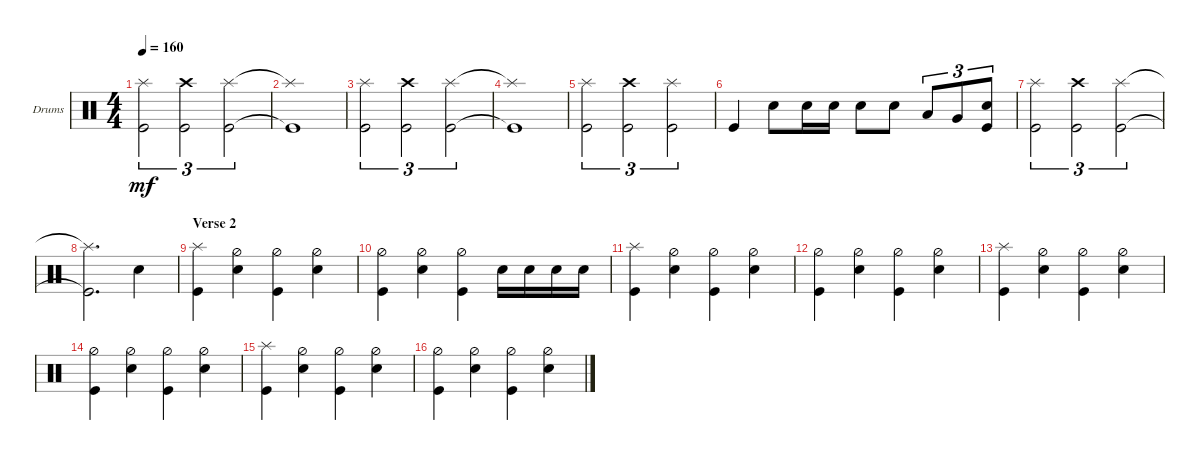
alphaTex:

\defaultSystemsLayout 4
\bracketExtendMode groupsimilarinstruments
\firstSystemTrackNameOrientation horizontal
\otherSystemsTrackNameOrientation horizontal
\track ("Drumkit" "Drums") {instrument percussion}
\staff {score}
\articulation defaults
\ts (4 4)
\tempo 160
\clef neutral
\ks c
("Kick (hit)" "Splash (hit)").2{tu (3 2) dy mf} ("Kick (hit)" "Crash high (hit)").2{tu (3 2)} ("Kick (hit)" "Splash (hit)").2{tu (3 2)} |
("Kick (hit)"{t} "Splash (hit)"{t}).1 |
("Kick (hit)" "Splash (hit)").2{tu (3 2)} ("Kick (hit)" "Crash high (hit)").2{tu (3 2)} ("Kick (hit)" "Splash (hit)").2{tu (3 2)} |
("Kick (hit)"{t} "Splash (hit)"{t}).1 |
("Kick (hit)" "Splash (hit)").2{tu (3 2)} ("Kick (hit)" "Crash high (hit)").2{tu (3 2)} ("Kick (hit)" "Splash (hit)").2{tu (3 2)} |
"Kick (hit)".4 "Snare (hit) 2".8 "Snare (hit) 2".16 "Snare (hit) 2".16 "Snare (hit) 2".8 "Snare (hit) 2".8 "Low Tom (hit)".8{tu (3 2)} "Very Low Tom (hit)".8{tu (3 2)} ("Kick (hit)" "Snare (hit) 2").8{tu (3 2)} |
("Kick (hit)" "Splash (hit)").2{tu (3 2)} ("Kick (hit)" "Crash high (hit)").2{tu (3 2)} ("Kick (hit)" "Splash (hit)").2{tu (3 2)} |
("Kick (hit)"{t} "Splash (hit)"{t}).2{d} "Snare (hit) 2".4 |
\section ("" "Verse 2")
("Splash (hit)" "Kick (hit)").4 ("Hi-Hat (half)" "Snare (hit) 2").4 ("Hi-Hat (half)" "Kick (hit)").4 ("Hi-Hat (half)" "Snare (hit) 2").4 |
("Hi-Hat (half)" "Kick (hit)").4 ("Hi-Hat (half)" "Snare (hit) 2").4 ("Hi-Hat (half)" "Kick (hit)").4 "Snare (hit) 2".16 "Snare (hit) 2".16 "Snare (hit) 2".16 "Snare (hit) 2".16 |
("Kick (hit)" "Splash (hit)").4 ("Hi-Hat (half)" "Snare (hit) 2").4 ("Hi-Hat (half)" "Kick (hit)").4 ("Hi-Hat (half)" "Snare (hit) 2").4 |
("Hi-Hat (half)" "Kick (hit)").4 ("Hi-Hat (half)" "Snare (hit) 2").4 ("Hi-Hat (half)" "Kick (hit)").4 ("Hi-Hat (half)" "Snare (hit) 2").4 |
("Splash (hit)" "Kick (hit)").4 ("Hi-Hat (half)" "Snare (hit) 2").4 ("Hi-Hat (half)" "Kick (hit)").4 ("Hi-Hat (half)" "Snare (hit) 2").4 |
("Hi-Hat (half)" "Kick (hit)").4 ("Hi-Hat (half)" "Snare (hit) 2").4 ("Hi-Hat (half)" "Kick (hit)").4 ("Hi-Hat (half)" "Snare (hit) 2").4 |
("Kick (hit)" "Splash (hit)").4 ("Hi-Hat (half)" "Snare (hit) 2").4 ("Hi-Hat (half)" "Kick (hit)").4 ("Hi-Hat (half)" "Snare (hit) 2").4 |
("Hi-Hat (half)" "Kick (hit)").4 ("Hi-Hat (half)" "Snare (hit) 2").4 ("Hi-Hat (half)" "Kick (hit)").4 ("Hi-Hat (half)" "Snare (hit) 2").4
